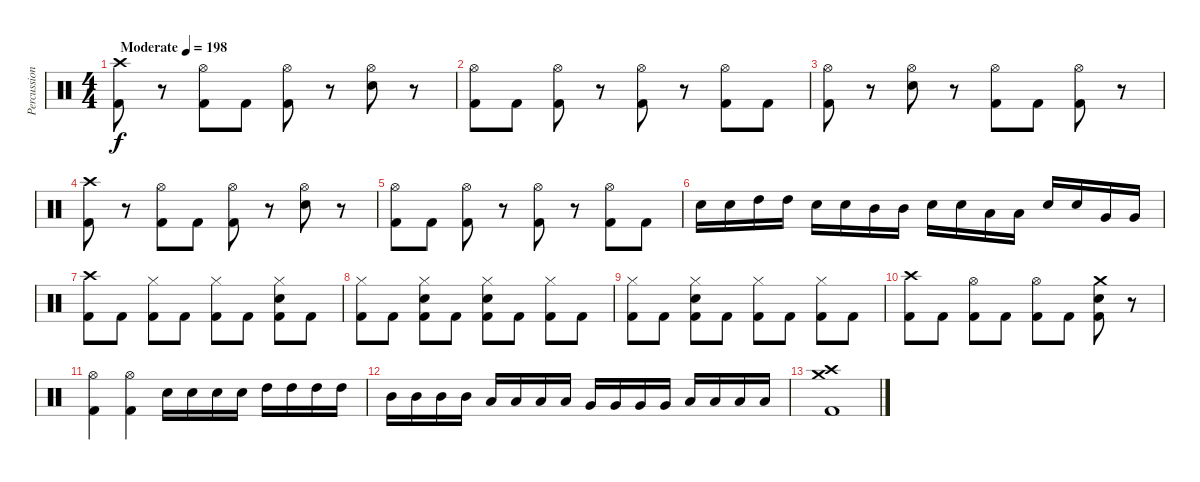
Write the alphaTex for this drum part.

\track ("Percussion" "Percussion") {instrument percussion}
\staff {score}
\articulation defaults
\ts (4 4)
\tempo (198 "Moderate")
\clef neutral
\ks c
("Crash high (hit)" "Kick (hit) 2").8{dy f} r.8 ("Hi-Hat (open)" "Kick (hit) 2").8 "Kick (hit) 2".8 ("Hi-Hat (open)" "Kick (hit) 2").8 r.8 ("Hi-Hat (open)" "Electric Snare (hit)").8 r.8 |
("Hi-Hat (open)" "Kick (hit) 2").8 "Kick (hit) 2".8 ("Hi-Hat (open)" "Kick (hit) 2").8 r.8 ("Hi-Hat (open)" "Kick (hit) 2").8 r.8 ("Hi-Hat (open)" "Kick (hit) 2").8 "Kick (hit) 2".8 |
("Hi-Hat (open)" "Kick (hit) 2").8 r.8 ("Hi-Hat (open)" "Electric Snare (hit)").8 r.8 ("Hi-Hat (open)" "Kick (hit) 2").8 "Kick (hit) 2".8 ("Hi-Hat (open)" "Kick (hit) 2").8 r.8 |
("Crash high (hit)" "Kick (hit) 2").8 r.8 ("Hi-Hat (open)" "Kick (hit) 2").8 "Kick (hit) 2".8 ("Hi-Hat (open)" "Kick (hit) 2").8 r.8 ("Hi-Hat (open)" "Electric Snare (hit)").8 r.8 |
("Hi-Hat (open)" "Kick (hit) 2").8 "Kick (hit) 2".8 ("Hi-Hat (open)" "Kick (hit) 2").8 r.8 ("Hi-Hat (open)" "Kick (hit) 2").8 r.8 ("Hi-Hat (open)" "Kick (hit) 2").8 "Kick (hit) 2".8 |
"Electric Snare (hit)".16 "Electric Snare (hit)".16 "High Tom (hit)".16 "High Tom (hit)".16 "Electric Snare (hit)".16 "Electric Snare (hit)".16 "Mid Tom (hit)".16 "Mid Tom (hit)".16 "Electric Snare (hit)".16 "Electric Snare (hit)".16 "Low Tom (hit)".16 "Low Tom (hit)".16 "Electric Snare (hit)".16 "Electric Snare (hit)".16 "Very Low Tom (hit)".16 "Very Low Tom (hit)".16 |
("Crash high (hit)" "Kick (hit) 2").8 "Kick (hit) 2".8 ("Hi-Hat (closed)" "Kick (hit) 2").8 "Kick (hit) 2".8 ("Hi-Hat (closed)" "Kick (hit) 2").8 "Kick (hit) 2".8 ("Hi-Hat (closed)" "Electric Snare (hit)" "Kick (hit) 2").8 "Kick (hit) 2".8 |
("Hi-Hat (closed)" "Kick (hit) 2").8 "Kick (hit) 2".8 ("Hi-Hat (closed)" "Electric Snare (hit)" "Kick (hit) 2").8 "Kick (hit) 2".8 ("Hi-Hat (closed)" "Electric Snare (hit)" "Kick (hit) 2").8 "Kick (hit) 2".8 ("Hi-Hat (closed)" "Kick (hit) 2").8 "Kick (hit) 2".8 |
("Hi-Hat (closed)" "Kick (hit) 2").8 "Kick (hit) 2".8 ("Hi-Hat (closed)" "Electric Snare (hit)" "Kick (hit) 2").8 "Kick (hit) 2".8 ("Hi-Hat (closed)" "Kick (hit) 2").8 "Kick (hit) 2".8 ("Hi-Hat (closed)" "Kick (hit) 2").8 "Kick (hit) 2".8 |
("Crash high (hit)" "Kick (hit) 2").8 "Kick (hit) 2".8 ("Hi-Hat (open)" "Kick (hit) 2").8 "Kick (hit) 2".8 ("Hi-Hat (open)" "Kick (hit) 2").8 "Kick (hit) 2".8 ("Crash medium (hit)" "Electric Snare (hit)" "Kick (hit) 2").8 r.8 |
("Hi-Hat (open)" "Kick (hit) 2").4 ("Hi-Hat (open)" "Kick (hit) 2").4 "Electric Snare (hit)".16 "Electric Snare (hit)".16 "Electric Snare (hit)".16 "Electric Snare (hit)".16 "High Tom (hit)".16 "High Tom (hit)".16 "High Tom (hit)".16 "High Tom (hit)".16 |
"Mid Tom (hit)".16 "Mid Tom (hit)".16 "Mid Tom (hit)".16 "Mid Tom (hit)".16 "Low Tom (hit)".16 "Low Tom (hit)".16 "Low Tom (hit)".16 "Low Tom (hit)".16 "Very Low Tom (hit)".16 "Very Low Tom (hit)".16 "Very Low Tom (hit)".16 "Very Low Tom (hit)".16 "Low Floor Tom (hit)".16 "Low Floor Tom (hit)".16 "Low Floor Tom (hit)".16 "Low Floor Tom (hit)".16 |
("Crash medium (hit)" "Crash high (hit)" "Kick (hit) 2").1
